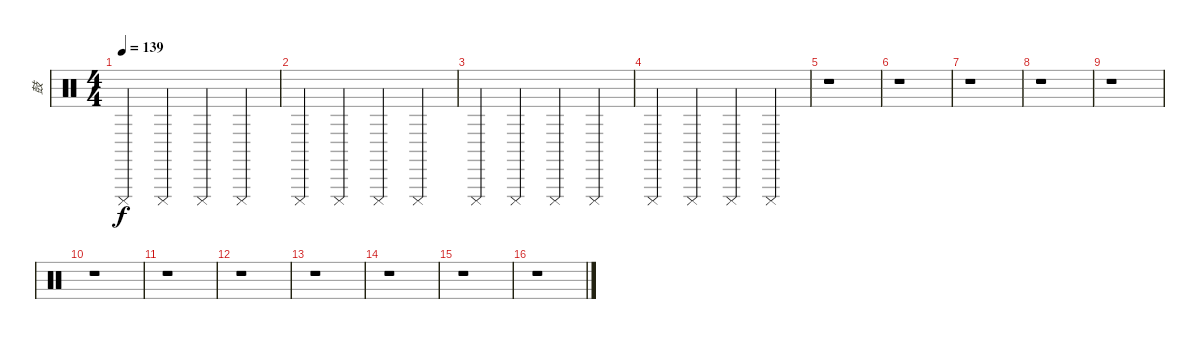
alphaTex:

\track ("鼓" "鼓") {instrument percussion}
\staff {score}
\articulation defaults
\ts (4 4)
\tempo 139
\clef neutral
\ks c "Cuica (mute)".4{dy f} "Cuica (mute)".4 "Cuica (mute)".4 "Cuica (mute)".4
|
"Cuica (mute)".4 "Cuica (mute)".4 "Cuica (mute)".4 "Cuica (mute)".4 |
"Cuica (mute)".4 "Cuica (mute)".4 "Cuica (mute)".4 "Cuica (mute)".4 |
"Cuica (mute)".4 "Cuica (mute)".4 "Cuica (mute)".4 "Cuica (mute)".4 |
r.1 |
r.1 |
r.1 |
r.1 |
r.1 |
r.1 |
r.1 |
r.1 |
r.1 |
r.1 |
r.1 |
r.1
